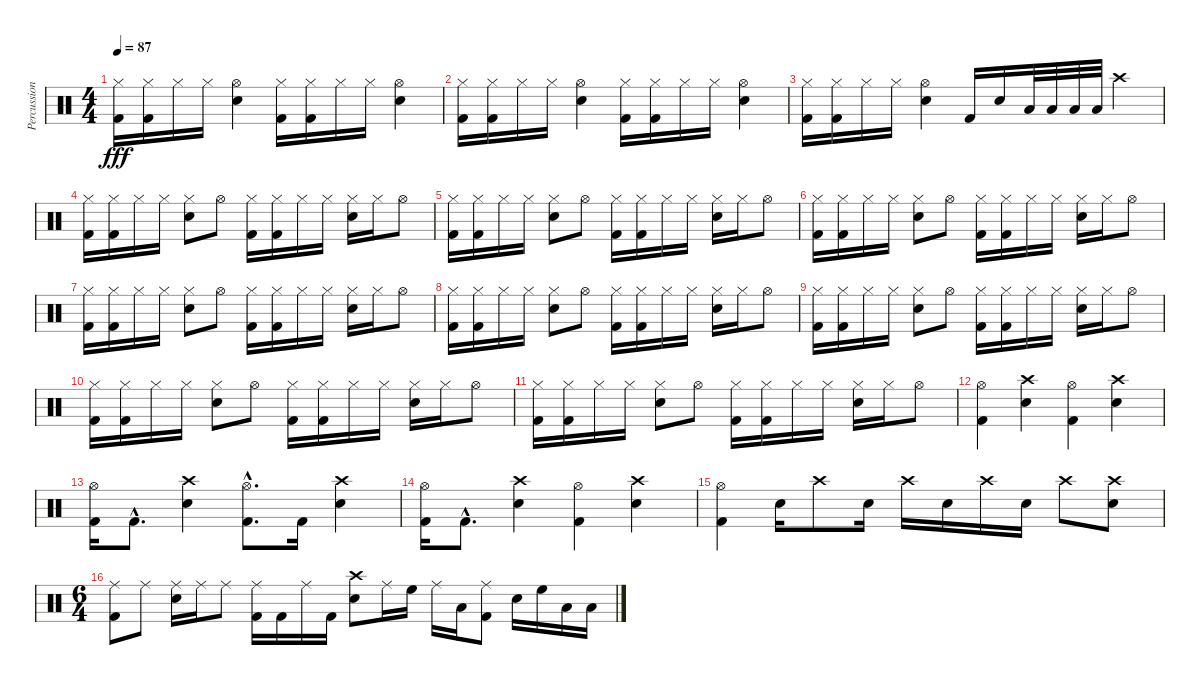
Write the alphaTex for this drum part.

\track ("Percussions" "Percussion") {instrument percussion}
\staff {score}
\articulation defaults
\ts (4 4)
\tempo 87
\clef neutral
\ks c
("Hi-Hat (closed)" "Kick (hit) 2").16{dy fff} ("Hi-Hat (closed)" "Kick (hit) 2").16 "Hi-Hat (closed)".16 "Hi-Hat (closed)".16 ("Electric Snare (hit)" "Hi-Hat (open)").4 ("Hi-Hat (closed)" "Kick (hit) 2").16 ("Hi-Hat (closed)" "Kick (hit) 2").16 "Hi-Hat (closed)".16 "Hi-Hat (closed)".16 ("Electric Snare (hit)" "Hi-Hat (open)").4 |
("Hi-Hat (closed)" "Kick (hit) 2").16 ("Hi-Hat (closed)" "Kick (hit) 2").16 "Hi-Hat (closed)".16 "Hi-Hat (closed)".16 ("Electric Snare (hit)" "Hi-Hat (open)").4 ("Hi-Hat (closed)" "Kick (hit) 2").16 ("Hi-Hat (closed)" "Kick (hit) 2").16 "Hi-Hat (closed)".16 "Hi-Hat (closed)".16 ("Electric Snare (hit)" "Hi-Hat (open)").4 |
("Hi-Hat (closed)" "Kick (hit) 2").16 ("Hi-Hat (closed)" "Kick (hit) 2").16 "Hi-Hat (closed)".16 "Hi-Hat (closed)".16 ("Electric Snare (hit)" "Hi-Hat (open)").4 "Kick (hit) 2".16 "Electric Snare (hit)".16 "Low Tom (hit)".32 "Low Tom (hit)".32 "Low Tom (hit)".32 "Low Tom (hit)".32 "Crash high (hit)".4 |
("Hi-Hat (closed)" "Kick (hit) 2").16 ("Hi-Hat (closed)" "Kick (hit) 2").16 "Hi-Hat (closed)".16 "Hi-Hat (closed)".16 ("Electric Snare (hit)" "Hi-Hat (closed)").8 "Hi-Hat (open)".8 ("Hi-Hat (closed)" "Kick (hit) 2").16 ("Hi-Hat (closed)" "Kick (hit) 2").16 "Hi-Hat (closed)".16 "Hi-Hat (closed)".16 ("Electric Snare (hit)" "Hi-Hat (closed)").16 "Hi-Hat (closed)".16 "Hi-Hat (open)".8 |
("Hi-Hat (closed)" "Kick (hit) 2").16 ("Hi-Hat (closed)" "Kick (hit) 2").16 "Hi-Hat (closed)".16 "Hi-Hat (closed)".16 ("Electric Snare (hit)" "Hi-Hat (closed)").8 "Hi-Hat (open)".8 ("Hi-Hat (closed)" "Kick (hit) 2").16 ("Hi-Hat (closed)" "Kick (hit) 2").16 "Hi-Hat (closed)".16 "Hi-Hat (closed)".16 ("Electric Snare (hit)" "Hi-Hat (closed)").16 "Hi-Hat (closed)".16 "Hi-Hat (open)".8 |
("Hi-Hat (closed)" "Kick (hit) 2").16 ("Hi-Hat (closed)" "Kick (hit) 2").16 "Hi-Hat (closed)".16 "Hi-Hat (closed)".16 ("Electric Snare (hit)" "Hi-Hat (closed)").8 "Hi-Hat (open)".8 ("Hi-Hat (closed)" "Kick (hit) 2").16 ("Hi-Hat (closed)" "Kick (hit) 2").16 "Hi-Hat (closed)".16 "Hi-Hat (closed)".16 ("Electric Snare (hit)" "Hi-Hat (closed)").16 "Hi-Hat (closed)".16 "Hi-Hat (open)".8 |
("Hi-Hat (closed)" "Kick (hit) 2").16 ("Hi-Hat (closed)" "Kick (hit) 2").16 "Hi-Hat (closed)".16 "Hi-Hat (closed)".16 ("Electric Snare (hit)" "Hi-Hat (closed)").8 "Hi-Hat (open)".8 ("Hi-Hat (closed)" "Kick (hit) 2").16 ("Hi-Hat (closed)" "Kick (hit) 2").16 "Hi-Hat (closed)".16 "Hi-Hat (closed)".16 ("Electric Snare (hit)" "Hi-Hat (closed)").16 "Hi-Hat (closed)".16 "Hi-Hat (open)".8 |
("Hi-Hat (closed)" "Kick (hit) 2").16 ("Hi-Hat (closed)" "Kick (hit) 2").16 "Hi-Hat (closed)".16 "Hi-Hat (closed)".16 ("Electric Snare (hit)" "Hi-Hat (closed)").8 "Hi-Hat (open)".8 ("Hi-Hat (closed)" "Kick (hit) 2").16 ("Hi-Hat (closed)" "Kick (hit) 2").16 "Hi-Hat (closed)".16 "Hi-Hat (closed)".16 ("Electric Snare (hit)" "Hi-Hat (closed)").16 "Hi-Hat (closed)".16 "Hi-Hat (open)".8 |
("Hi-Hat (closed)" "Kick (hit) 2").16 ("Hi-Hat (closed)" "Kick (hit) 2").16 "Hi-Hat (closed)".16 "Hi-Hat (closed)".16 ("Electric Snare (hit)" "Hi-Hat (closed)").8 "Hi-Hat (open)".8 ("Hi-Hat (closed)" "Kick (hit) 2").16 ("Hi-Hat (closed)" "Kick (hit) 2").16 "Hi-Hat (closed)".16 "Hi-Hat (closed)".16 ("Electric Snare (hit)" "Hi-Hat (closed)").16 "Hi-Hat (closed)".16 "Hi-Hat (open)".8 |
("Hi-Hat (closed)" "Kick (hit) 2").16 ("Hi-Hat (closed)" "Kick (hit) 2").16 "Hi-Hat (closed)".16 "Hi-Hat (closed)".16 ("Electric Snare (hit)" "Hi-Hat (closed)").8 "Hi-Hat (open)".8 ("Hi-Hat (closed)" "Kick (hit) 2").16 ("Hi-Hat (closed)" "Kick (hit) 2").16 "Hi-Hat (closed)".16 "Hi-Hat (closed)".16 ("Electric Snare (hit)" "Hi-Hat (closed)").16 "Hi-Hat (closed)".16 "Hi-Hat (open)".8 |
("Hi-Hat (closed)" "Kick (hit) 2").16 ("Hi-Hat (closed)" "Kick (hit) 2").16 "Hi-Hat (closed)".16 "Hi-Hat (closed)".16 ("Electric Snare (hit)" "Hi-Hat (closed)").8 "Hi-Hat (open)".8 ("Hi-Hat (closed)" "Kick (hit) 2").16 ("Hi-Hat (closed)" "Kick (hit) 2").16 "Hi-Hat (closed)".16 "Hi-Hat (closed)".16 ("Electric Snare (hit)" "Hi-Hat (closed)").16 "Hi-Hat (closed)".16 "Hi-Hat (open)".8 |
("Hi-Hat (open)" "Kick (hit) 2").4 ("Electric Snare (hit)" "Crash high (hit)").4 ("Hi-Hat (open)" "Kick (hit) 2").4 ("Electric Snare (hit)" "Crash high (hit)").4 |
("Hi-Hat (open)" "Kick (hit) 2").16 "Kick (hit) 2"{hac}.8{d} ("Electric Snare (hit)" "Crash high (hit)").4 ("Hi-Hat (open)"{hac} "Kick (hit) 2"{hac}).8{d} "Kick (hit) 2".16 ("Electric Snare (hit)" "Crash high (hit)").4 |
("Hi-Hat (open)" "Kick (hit) 2").16 "Kick (hit) 2"{hac}.8{d} ("Electric Snare (hit)" "Crash high (hit)").4 ("Hi-Hat (open)" "Kick (hit) 2").4 ("Electric Snare (hit)" "Crash high (hit)").4 |
("Hi-Hat (open)" "Kick (hit) 2").4 "Electric Snare (hit)".16 "Crash high (hit)".8 "Electric Snare (hit)".16 "Crash high (hit)".16 "Electric Snare (hit)".16 "Crash high (hit)".16 "Electric Snare (hit)".16 "Crash high (hit)".8 ("Electric Snare (hit)" "Crash high (hit)").8 |
\ts (6 4)
("Ride (middle)" "Kick (hit) 2").8 "Ride (middle)".8 ("Electric Snare (hit)" "Ride (middle)").16 "Ride (middle)".16 "Ride (middle)".8 ("Ride (middle)" "Kick (hit) 2").16 "Kick (hit) 2".16 "Ride (middle)".16 "Kick (hit) 2".16 ("Electric Snare (hit)" "Crash high (hit)").8 "Ride (middle)".16 "High Floor Tom (hit)".16 "Ride (middle)".16 "Low Tom (hit)".16 ("Ride (middle)" "Kick (hit) 2").8 "Electric Snare (hit)".16 "High Floor Tom (hit)".16 "Low Tom (hit)".16 "Low Tom (hit)".16
